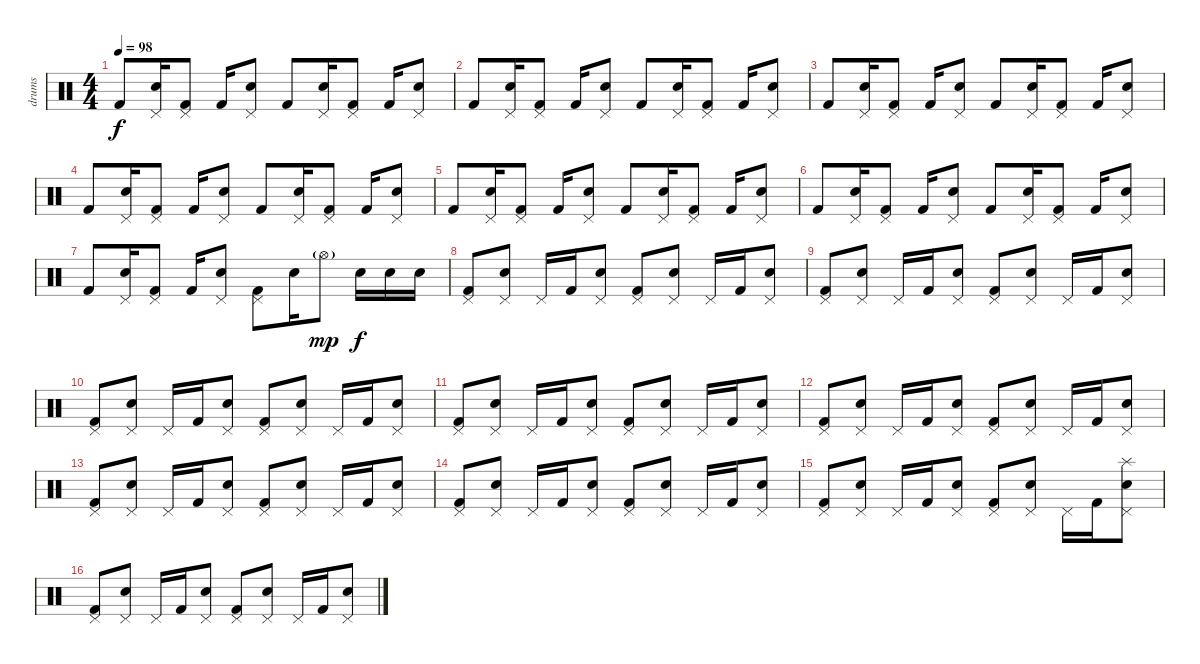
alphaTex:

\track ("drums" "drums") {instrument percussion}
\staff {score}
\articulation defaults
\ts (4 4)
\tempo 98
\clef neutral
\ks c "Kick (hit) 2".8{dy f}
("Pedal Hi-Hat (hit)" "Electric Snare (hit)").16 ("Pedal Hi-Hat (hit)" "Kick (hit) 2").8 "Kick (hit) 2".16 ("Pedal Hi-Hat (hit)" "Electric Snare (hit)").8 "Kick (hit) 2".8 ("Pedal Hi-Hat (hit)" "Electric Snare (hit)").16 ("Pedal Hi-Hat (hit)" "Kick (hit) 2").8 "Kick (hit) 2".16 ("Pedal Hi-Hat (hit)" "Electric Snare (hit)").8 |
"Kick (hit) 2".8 ("Pedal Hi-Hat (hit)" "Electric Snare (hit)").16 ("Pedal Hi-Hat (hit)" "Kick (hit) 2").8 "Kick (hit) 2".16 ("Pedal Hi-Hat (hit)" "Electric Snare (hit)").8 "Kick (hit) 2".8 ("Pedal Hi-Hat (hit)" "Electric Snare (hit)").16 ("Pedal Hi-Hat (hit)" "Kick (hit) 2").8 "Kick (hit) 2".16 ("Pedal Hi-Hat (hit)" "Electric Snare (hit)").8 |
"Kick (hit) 2".8 ("Pedal Hi-Hat (hit)" "Electric Snare (hit)").16 ("Pedal Hi-Hat (hit)" "Kick (hit) 2").8 "Kick (hit) 2".16 ("Pedal Hi-Hat (hit)" "Electric Snare (hit)").8 "Kick (hit) 2".8 ("Pedal Hi-Hat (hit)" "Electric Snare (hit)").16 ("Pedal Hi-Hat (hit)" "Kick (hit) 2").8 "Kick (hit) 2".16 ("Pedal Hi-Hat (hit)" "Electric Snare (hit)").8 |
"Kick (hit) 2".8 ("Pedal Hi-Hat (hit)" "Electric Snare (hit)").16 ("Pedal Hi-Hat (hit)" "Kick (hit) 2").8 "Kick (hit) 2".16 ("Pedal Hi-Hat (hit)" "Electric Snare (hit)").8 "Kick (hit) 2".8 ("Pedal Hi-Hat (hit)" "Electric Snare (hit)").16 ("Pedal Hi-Hat (hit)" "Kick (hit) 2").8 "Kick (hit) 2".16 ("Pedal Hi-Hat (hit)" "Electric Snare (hit)").8 |
"Kick (hit) 2".8 ("Pedal Hi-Hat (hit)" "Electric Snare (hit)").16 ("Pedal Hi-Hat (hit)" "Kick (hit) 2").8 "Kick (hit) 2".16 ("Pedal Hi-Hat (hit)" "Electric Snare (hit)").8 "Kick (hit) 2".8 ("Pedal Hi-Hat (hit)" "Electric Snare (hit)").16 ("Pedal Hi-Hat (hit)" "Kick (hit) 2").8 "Kick (hit) 2".16 ("Pedal Hi-Hat (hit)" "Electric Snare (hit)").8 |
"Kick (hit) 2".8 ("Pedal Hi-Hat (hit)" "Electric Snare (hit)").16 ("Pedal Hi-Hat (hit)" "Kick (hit) 2").8 "Kick (hit) 2".16 ("Pedal Hi-Hat (hit)" "Electric Snare (hit)").8 "Kick (hit) 2".8 ("Pedal Hi-Hat (hit)" "Electric Snare (hit)").16 ("Pedal Hi-Hat (hit)" "Kick (hit) 2").8 "Kick (hit) 2".16 ("Pedal Hi-Hat (hit)" "Electric Snare (hit)").8 |
"Kick (hit) 2".8 ("Pedal Hi-Hat (hit)" "Electric Snare (hit)").16 ("Pedal Hi-Hat (hit)" "Kick (hit) 2").8 "Kick (hit) 2".16 ("Pedal Hi-Hat (hit)" "Electric Snare (hit)").8 ("Pedal Hi-Hat (hit)" "Kick (hit) 2").8 "Electric Snare (hit)".16 "Hi-Hat (open)"{g}.8{dy mp} "Electric Snare (hit)".16{dy f} "Electric Snare (hit)".16 "Electric Snare (hit)".16 |
("Pedal Hi-Hat (hit)" "Kick (hit) 2").8 ("Pedal Hi-Hat (hit)" "Electric Snare (hit)").8 "Pedal Hi-Hat (hit)".16 "Kick (hit) 2".16 ("Pedal Hi-Hat (hit)" "Electric Snare (hit)").8 ("Pedal Hi-Hat (hit)" "Kick (hit) 2").8 ("Pedal Hi-Hat (hit)" "Electric Snare (hit)").8 "Pedal Hi-Hat (hit)".16 "Kick (hit) 2".16 ("Pedal Hi-Hat (hit)" "Electric Snare (hit)").8 |
("Pedal Hi-Hat (hit)" "Kick (hit) 2").8 ("Pedal Hi-Hat (hit)" "Electric Snare (hit)").8 "Pedal Hi-Hat (hit)".16 "Kick (hit) 2".16 ("Pedal Hi-Hat (hit)" "Electric Snare (hit)").8 ("Pedal Hi-Hat (hit)" "Kick (hit) 2").8 ("Pedal Hi-Hat (hit)" "Electric Snare (hit)").8 "Pedal Hi-Hat (hit)".16 "Kick (hit) 2".16 ("Pedal Hi-Hat (hit)" "Electric Snare (hit)").8 |
("Pedal Hi-Hat (hit)" "Kick (hit) 2").8 ("Pedal Hi-Hat (hit)" "Electric Snare (hit)").8 "Pedal Hi-Hat (hit)".16 "Kick (hit) 2".16 ("Pedal Hi-Hat (hit)" "Electric Snare (hit)").8 ("Pedal Hi-Hat (hit)" "Kick (hit) 2").8 ("Pedal Hi-Hat (hit)" "Electric Snare (hit)").8 "Pedal Hi-Hat (hit)".16 "Kick (hit) 2".16 ("Pedal Hi-Hat (hit)" "Electric Snare (hit)").8 |
("Pedal Hi-Hat (hit)" "Kick (hit) 2").8 ("Pedal Hi-Hat (hit)" "Electric Snare (hit)").8 "Pedal Hi-Hat (hit)".16 "Kick (hit) 2".16 ("Pedal Hi-Hat (hit)" "Electric Snare (hit)").8 ("Pedal Hi-Hat (hit)" "Kick (hit) 2").8 ("Pedal Hi-Hat (hit)" "Electric Snare (hit)").8 "Pedal Hi-Hat (hit)".16 "Kick (hit) 2".16 ("Pedal Hi-Hat (hit)" "Electric Snare (hit)").8 |
("Pedal Hi-Hat (hit)" "Kick (hit) 2").8 ("Pedal Hi-Hat (hit)" "Electric Snare (hit)").8 "Pedal Hi-Hat (hit)".16 "Kick (hit) 2".16 ("Pedal Hi-Hat (hit)" "Electric Snare (hit)").8 ("Pedal Hi-Hat (hit)" "Kick (hit) 2").8 ("Pedal Hi-Hat (hit)" "Electric Snare (hit)").8 "Pedal Hi-Hat (hit)".16 "Kick (hit) 2".16 ("Pedal Hi-Hat (hit)" "Electric Snare (hit)").8 |
("Pedal Hi-Hat (hit)" "Kick (hit) 2").8 ("Pedal Hi-Hat (hit)" "Electric Snare (hit)").8 "Pedal Hi-Hat (hit)".16 "Kick (hit) 2".16 ("Pedal Hi-Hat (hit)" "Electric Snare (hit)").8 ("Pedal Hi-Hat (hit)" "Kick (hit) 2").8 ("Pedal Hi-Hat (hit)" "Electric Snare (hit)").8 "Pedal Hi-Hat (hit)".16 "Kick (hit) 2".16 ("Pedal Hi-Hat (hit)" "Electric Snare (hit)").8 |
("Pedal Hi-Hat (hit)" "Kick (hit) 2").8 ("Pedal Hi-Hat (hit)" "Electric Snare (hit)").8 "Pedal Hi-Hat (hit)".16 "Kick (hit) 2".16 ("Pedal Hi-Hat (hit)" "Electric Snare (hit)").8 ("Pedal Hi-Hat (hit)" "Kick (hit) 2").8 ("Pedal Hi-Hat (hit)" "Electric Snare (hit)").8 "Pedal Hi-Hat (hit)".16 "Kick (hit) 2".16 ("Pedal Hi-Hat (hit)" "Electric Snare (hit)").8 |
("Pedal Hi-Hat (hit)" "Kick (hit) 2").8 ("Pedal Hi-Hat (hit)" "Electric Snare (hit)").8 "Pedal Hi-Hat (hit)".16 "Kick (hit) 2".16 ("Pedal Hi-Hat (hit)" "Electric Snare (hit)").8 ("Pedal Hi-Hat (hit)" "Kick (hit) 2").8 ("Pedal Hi-Hat (hit)" "Electric Snare (hit)").8 "Pedal Hi-Hat (hit)".16 "Kick (hit) 2".16 ("Splash (hit)" "Pedal Hi-Hat (hit)" "Electric Snare (hit)").8 |
("Pedal Hi-Hat (hit)" "Kick (hit) 2").8 ("Pedal Hi-Hat (hit)" "Electric Snare (hit)").8 "Pedal Hi-Hat (hit)".16 "Kick (hit) 2".16 ("Pedal Hi-Hat (hit)" "Electric Snare (hit)").8 ("Pedal Hi-Hat (hit)" "Kick (hit) 2").8 ("Pedal Hi-Hat (hit)" "Electric Snare (hit)").8 "Pedal Hi-Hat (hit)".16 "Kick (hit) 2".16 ("Pedal Hi-Hat (hit)" "Electric Snare (hit)").8
